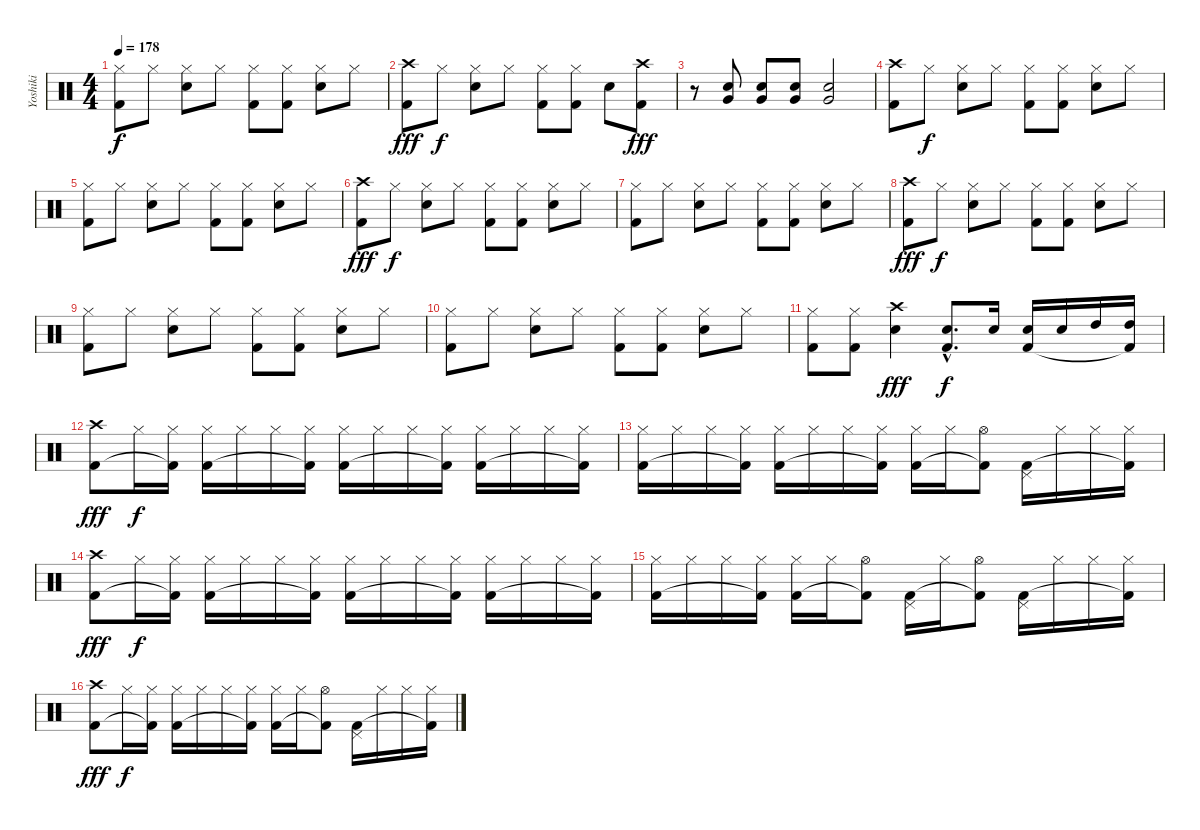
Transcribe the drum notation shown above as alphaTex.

\track ("Yoshiki" "Yoshiki") {instrument percussion}
\staff {score}
\articulation defaults
\ts (4 4)
\tempo 178
\clef neutral
\ks c
("Hi-Hat (closed)" "Kick (hit) 2").8{dy f} "Hi-Hat (closed)".8 ("Hi-Hat (closed)" "Snare (hit) 2").8 "Hi-Hat (closed)".8 ("Hi-Hat (closed)" "Kick (hit) 2").8 ("Hi-Hat (closed)" "Kick (hit) 2").8 ("Hi-Hat (closed)" "Snare (hit) 2").8 "Hi-Hat (closed)".8 |
("Crash high (hit)" "Kick (hit) 2").8{dy fff} "Hi-Hat (closed)".8{dy f} ("Hi-Hat (closed)" "Snare (hit) 2").8 "Hi-Hat (closed)".8 ("Hi-Hat (closed)" "Kick (hit) 2").8 ("Hi-Hat (closed)" "Kick (hit) 2").8 "Snare (hit) 2".8 ("Crash high (hit)" "Kick (hit) 2").8{dy fff} |
r.8 ("Snare (hit) 2" "Very Low Tom (hit)").8 ("Snare (hit) 2" "Very Low Tom (hit)").8 ("Snare (hit) 2" "Very Low Tom (hit)").8 ("Snare (hit) 2" "Very Low Tom (hit)").2 |
("Crash high (hit)" "Kick (hit) 2").8 "Hi-Hat (closed)".8{dy f} ("Hi-Hat (closed)" "Snare (hit) 2").8 "Hi-Hat (closed)".8 ("Hi-Hat (closed)" "Kick (hit) 2").8 ("Hi-Hat (closed)" "Kick (hit) 2").8 ("Hi-Hat (closed)" "Snare (hit) 2").8 "Hi-Hat (closed)".8 |
("Hi-Hat (closed)" "Kick (hit) 2").8 "Hi-Hat (closed)".8 ("Hi-Hat (closed)" "Snare (hit) 2").8 "Hi-Hat (closed)".8 ("Hi-Hat (closed)" "Kick (hit) 2").8 ("Hi-Hat (closed)" "Kick (hit) 2").8 ("Hi-Hat (closed)" "Snare (hit) 2").8 "Hi-Hat (closed)".8 |
("Crash high (hit)" "Kick (hit) 2").8{dy fff} "Hi-Hat (closed)".8{dy f} ("Hi-Hat (closed)" "Snare (hit) 2").8 "Hi-Hat (closed)".8 ("Hi-Hat (closed)" "Kick (hit) 2").8 ("Hi-Hat (closed)" "Kick (hit) 2").8 ("Hi-Hat (closed)" "Snare (hit) 2").8 "Hi-Hat (closed)".8 |
("Hi-Hat (closed)" "Kick (hit) 2").8 "Hi-Hat (closed)".8 ("Hi-Hat (closed)" "Snare (hit) 2").8 "Hi-Hat (closed)".8 ("Hi-Hat (closed)" "Kick (hit) 2").8 ("Hi-Hat (closed)" "Kick (hit) 2").8 ("Hi-Hat (closed)" "Snare (hit) 2").8 "Hi-Hat (closed)".8 |
("Crash high (hit)" "Kick (hit) 2").8{dy fff} "Hi-Hat (closed)".8{dy f} ("Hi-Hat (closed)" "Snare (hit) 2").8 "Hi-Hat (closed)".8 ("Hi-Hat (closed)" "Kick (hit) 2").8 ("Hi-Hat (closed)" "Kick (hit) 2").8 ("Hi-Hat (closed)" "Snare (hit) 2").8 "Hi-Hat (closed)".8 |
("Hi-Hat (closed)" "Kick (hit) 2").8 "Hi-Hat (closed)".8 ("Hi-Hat (closed)" "Snare (hit) 2").8 "Hi-Hat (closed)".8 ("Hi-Hat (closed)" "Kick (hit) 2").8 ("Hi-Hat (closed)" "Kick (hit) 2").8 ("Hi-Hat (closed)" "Snare (hit) 2").8 "Hi-Hat (closed)".8 |
("Hi-Hat (closed)" "Kick (hit) 2").8 "Hi-Hat (closed)".8 ("Hi-Hat (closed)" "Snare (hit) 2").8 "Hi-Hat (closed)".8 ("Hi-Hat (closed)" "Kick (hit) 2").8 ("Hi-Hat (closed)" "Kick (hit) 2").8 ("Hi-Hat (closed)" "Snare (hit) 2").8 "Hi-Hat (closed)".8 |
("Hi-Hat (closed)" "Kick (hit) 2").8 ("Hi-Hat (closed)" "Kick (hit) 2").8 ("Crash high (hit)" "Snare (hit) 2").4{dy fff} ("Snare (hit) 2"{hac} "Kick (hit) 2"{hac}).8{d dy f} "Snare (hit) 2".16 ("Snare (hit) 2" "Kick (hit) 2").16 "Snare (hit) 2".16 "High Tom (hit)".16 ("High Tom (hit)" "Kick (hit) 2"{t}).16 |
("Crash high (hit)" "Kick (hit) 2").8{dy fff} "Hi-Hat (closed)".16{dy f} ("Hi-Hat (closed)" "Kick (hit) 2"{t}).16 ("Hi-Hat (closed)" "Kick (hit) 2").16 "Hi-Hat (closed)".16 "Hi-Hat (closed)".16 ("Hi-Hat (closed)" "Kick (hit) 2"{t}).16 ("Hi-Hat (closed)" "Kick (hit) 2").16 "Hi-Hat (closed)".16 "Hi-Hat (closed)".16 ("Hi-Hat (closed)" "Kick (hit) 2"{t}).16 ("Hi-Hat (closed)" "Kick (hit) 2").16 "Hi-Hat (closed)".16 "Hi-Hat (closed)".16 ("Hi-Hat (closed)" "Kick (hit) 2"{t}).16 |
("Hi-Hat (closed)" "Kick (hit) 2").16 "Hi-Hat (closed)".16 "Hi-Hat (closed)".16 ("Hi-Hat (closed)" "Kick (hit) 2"{t}).16 ("Hi-Hat (closed)" "Kick (hit) 2").16 "Hi-Hat (closed)".16 "Hi-Hat (closed)".16 ("Hi-Hat (closed)" "Kick (hit) 2"{t}).16 ("Hi-Hat (closed)" "Kick (hit) 2").16 "Hi-Hat (closed)".16 ("Hi-Hat (open)" "Kick (hit) 2"{t}).8 ("Pedal Hi-Hat (hit)" "Kick (hit) 2").16 "Hi-Hat (closed)".16 "Hi-Hat (closed)".16 ("Hi-Hat (closed)" "Kick (hit) 2"{t}).16 |
("Crash high (hit)" "Kick (hit) 2").8{dy fff} "Hi-Hat (closed)".16{dy f} ("Hi-Hat (closed)" "Kick (hit) 2"{t}).16 ("Hi-Hat (closed)" "Kick (hit) 2").16 "Hi-Hat (closed)".16 "Hi-Hat (closed)".16 ("Hi-Hat (closed)" "Kick (hit) 2"{t}).16 ("Hi-Hat (closed)" "Kick (hit) 2").16 "Hi-Hat (closed)".16 "Hi-Hat (closed)".16 ("Hi-Hat (closed)" "Kick (hit) 2"{t}).16 ("Hi-Hat (closed)" "Kick (hit) 2").16 "Hi-Hat (closed)".16 "Hi-Hat (closed)".16 ("Hi-Hat (closed)" "Kick (hit) 2"{t}).16 |
("Hi-Hat (closed)" "Kick (hit) 2").16 "Hi-Hat (closed)".16 "Hi-Hat (closed)".16 ("Hi-Hat (closed)" "Kick (hit) 2"{t}).16 ("Hi-Hat (closed)" "Kick (hit) 2").16 "Hi-Hat (closed)".16 ("Hi-Hat (open)" "Kick (hit) 2"{t}).8 ("Pedal Hi-Hat (hit)" "Kick (hit) 2").16 "Hi-Hat (closed)".16 ("Hi-Hat (open)" "Kick (hit) 2"{t}).8 ("Pedal Hi-Hat (hit)" "Kick (hit) 2").16 "Hi-Hat (closed)".16 "Hi-Hat (closed)".16 ("Hi-Hat (closed)" "Kick (hit) 2"{t}).16 |
("Crash high (hit)" "Kick (hit) 2").8{dy fff} "Hi-Hat (closed)".16{dy f} ("Hi-Hat (closed)" "Kick (hit) 2"{t}).16 ("Hi-Hat (closed)" "Kick (hit) 2").16 "Hi-Hat (closed)".16 "Hi-Hat (closed)".16 ("Hi-Hat (closed)" "Kick (hit) 2"{t}).16 ("Hi-Hat (closed)" "Kick (hit) 2").16 "Hi-Hat (closed)".16 ("Hi-Hat (open)" "Kick (hit) 2"{t}).8 ("Pedal Hi-Hat (hit)" "Kick (hit) 2").16 "Hi-Hat (closed)".16 "Hi-Hat (closed)".16 ("Hi-Hat (closed)" "Kick (hit) 2"{t}).16
